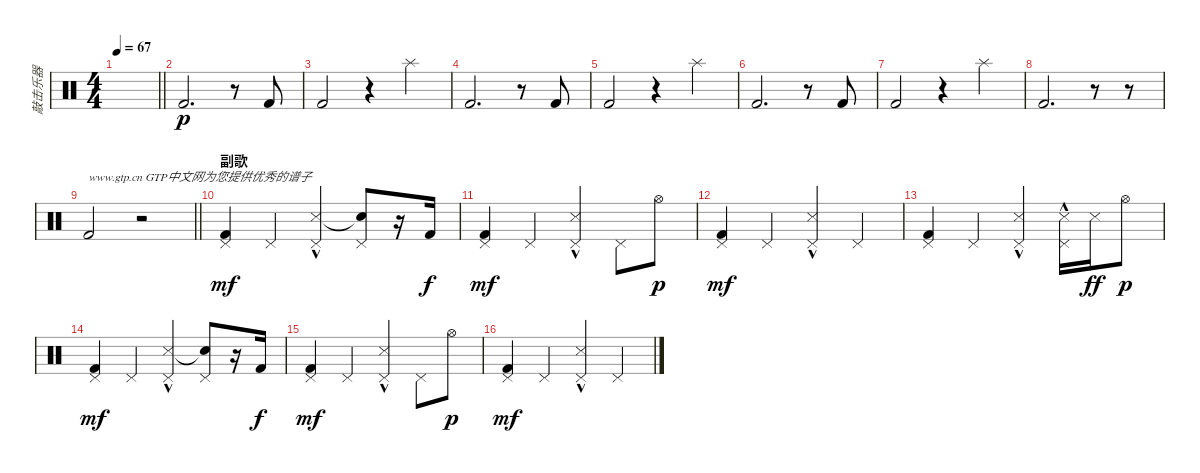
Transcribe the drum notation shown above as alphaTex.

\track ("敲击乐器" "敲击乐器") {instrument percussion}
\staff {score}
\articulation defaults
\ts (4 4)
\tempo 67
\clef neutral
\barLineRight lightlight
\ks c
|
"Kick (hit) 2".2{d dy p} r.8 "Kick (hit) 2".8 |
"Kick (hit) 2".2 r.4 "Splash (hit)".4 |
"Kick (hit) 2".2{d} r.8 "Kick (hit) 2".8 |
"Kick (hit) 2".2 r.4 "Splash (hit)".4 |
"Kick (hit) 2".2{d} r.8 "Kick (hit) 2".8 |
"Kick (hit) 2".2 r.4 "Splash (hit)".4 |
"Kick (hit) 2".2{d} r.8 r.8 |
\barLineRight lightlight "Kick (hit) 2".2{txt "www.gtp.cn GTP中文网为您提供优秀的谱子"}
r.2 |
\section ("" "副歌")
("Kick (hit) 2" "Pedal Hi-Hat (hit)").4{dy mf} "Pedal Hi-Hat (hit)".4 ("Snare (side stick) 3"{hac} "Pedal Hi-Hat (hit)").4 ("Snare (hit)"{t} "Pedal Hi-Hat (hit)").8 r.16 "Kick (hit) 2".16{dy f} |
("Kick (hit) 2" "Pedal Hi-Hat (hit)").4{dy mf} "Pedal Hi-Hat (hit)".4 ("Snare (side stick) 3"{hac} "Pedal Hi-Hat (hit)").4 "Pedal Hi-Hat (hit)".8 "Hi-Hat (open)".8{dy p} |
("Kick (hit) 2" "Pedal Hi-Hat (hit)").4{dy mf} "Pedal Hi-Hat (hit)".4 ("Snare (side stick) 3"{hac} "Pedal Hi-Hat (hit)").4 "Pedal Hi-Hat (hit)".4 |
("Kick (hit) 2" "Pedal Hi-Hat (hit)").4 "Pedal Hi-Hat (hit)".4 ("Snare (side stick) 3"{hac} "Pedal Hi-Hat (hit)").4 ("Snare (side stick) 3"{hac} "Pedal Hi-Hat (hit)").16 "Snare (side stick) 3".16{dy ff} "Hi-Hat (open)".8{dy p} |
("Kick (hit) 2" "Pedal Hi-Hat (hit)").4{dy mf} "Pedal Hi-Hat (hit)".4 ("Snare (side stick) 3"{hac} "Pedal Hi-Hat (hit)").4 ("Snare (hit)"{t} "Pedal Hi-Hat (hit)").8 r.16 "Kick (hit) 2".16{dy f} |
("Kick (hit) 2" "Pedal Hi-Hat (hit)").4{dy mf} "Pedal Hi-Hat (hit)".4 ("Snare (side stick) 3"{hac} "Pedal Hi-Hat (hit)").4 "Pedal Hi-Hat (hit)".8 "Hi-Hat (open)".8{dy p} |
("Kick (hit) 2" "Pedal Hi-Hat (hit)").4{dy mf} "Pedal Hi-Hat (hit)".4 ("Snare (side stick) 3"{hac} "Pedal Hi-Hat (hit)").4 "Pedal Hi-Hat (hit)".4
